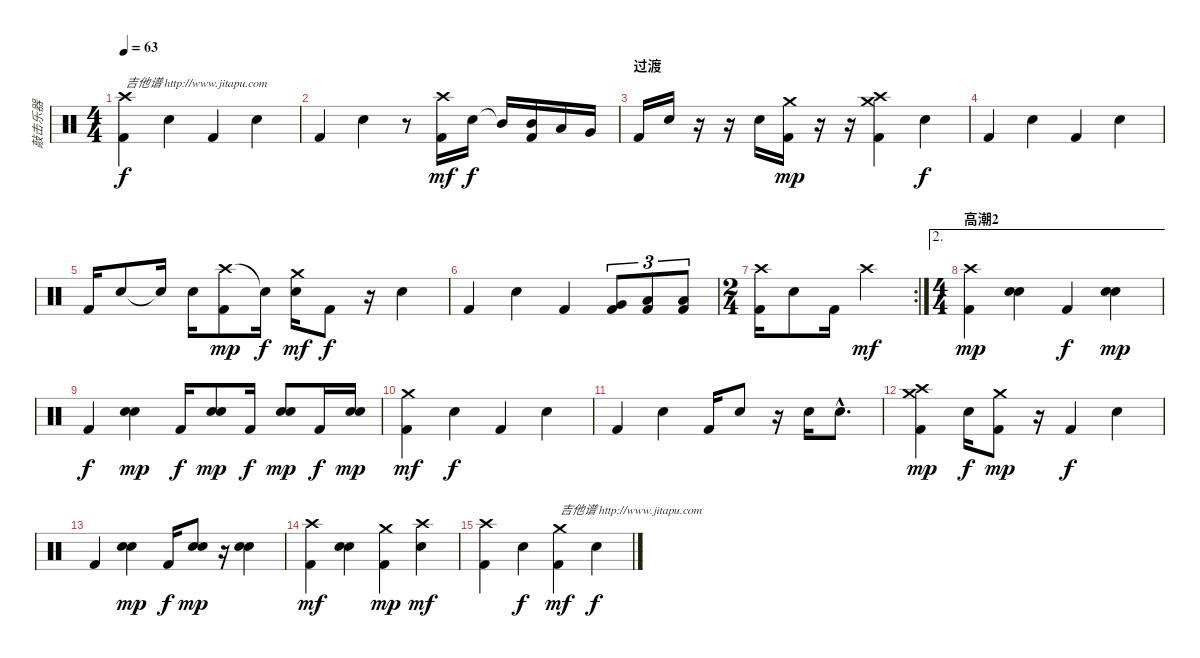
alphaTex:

\track ("敲击乐器" "敲击乐器") {instrument percussion}
\staff {score}
\articulation defaults
\ts (4 4)
\tempo 63
\clef neutral
\ks c
("Crash high (hit)" "Kick (hit) 2").4{txt "吉他谱 http://www.jitapu.com" dy f} "Snare (hit) 2".4 "Kick (hit) 2".4 "Snare (hit) 2".4 |
"Kick (hit) 2".4 "Snare (hit) 2".4 r.8 ("Crash high (hit)" "Kick (hit) 2").16{dy mf} "Snare (hit) 2".16{dy f} "Mid Tom (hit)"{t}.16 ("Mid Tom (hit)" "Kick (hit) 2").16 "Low Tom (hit)".16 "Very Low Tom (hit)".16 |
\section ("" "过渡")
"Kick (hit) 2".16 "Snare (hit) 2".16 r.16 r.16 "Snare (hit) 2".16 ("Kick (hit) 2" "Crash medium (hit)").16{dy mp} r.16 r.16 ("Crash high (hit)" "Crash medium (hit)" "Kick (hit) 2").4 "Snare (hit) 2".4{dy f} |
"Kick (hit) 2".4 "Snare (hit) 2".4 "Kick (hit) 2".4 "Snare (hit) 2".4 |
"Kick (hit) 2".16 "Snare (hit) 2".8 "Snare (hit) 2"{t}.16 "Snare (hit) 2".16 ("Crash high (hit)" "Kick (hit) 2").8{dy mp} "Snare (hit)"{t}.16{dy f} ("Crash medium (hit)" "Snare (hit) 2").16{dy mf} "Kick (hit) 2".8{dy f} r.16 "Snare (hit) 2".4 |
"Kick (hit) 2".4 "Snare (hit) 2".4 "Kick (hit) 2".4 ("Very Low Tom (hit)" "Kick (hit) 2").8{tu (3 2)} ("Low Tom (hit)" "Kick (hit) 2").8{tu (3 2)} ("Low Tom (hit)" "Kick (hit) 2").8{tu (3 2)} |
\rc 2
\ts (2 4)
("Kick (hit) 2" "Crash high (hit)").16 "Snare (hit) 2".8 "Kick (hit) 2".16 "Crash high (hit)".4{dy mf} |
\ae 2
\ts (4 4)
\section ("" "高潮2")
("Kick (hit) 2" "Crash high (hit)").4{dy mp} ("Snare (hit) 2" "Electric Snare (hit)").4 "Kick (hit) 2".4{dy f} ("Snare (hit) 2" "Electric Snare (hit)").4{dy mp} |
"Kick (hit) 2".4{dy f} ("Electric Snare (hit)" "Snare (hit) 2").4{dy mp} "Kick (hit) 2".16{dy f} ("Electric Snare (hit)" "Snare (hit) 2").8{dy mp} "Kick (hit) 2".16{dy f} ("Electric Snare (hit)" "Snare (hit) 2").8{dy mp} "Kick (hit) 2".16{dy f} ("Electric Snare (hit)" "Snare (hit) 2").16{dy mp} |
("Crash medium (hit)" "Kick (hit) 2").4{dy mf} "Snare (hit) 2".4{dy f} "Kick (hit) 2".4 "Snare (hit) 2".4 |
"Kick (hit) 2".4 "Snare (hit) 2".4 "Kick (hit) 2".16 "Snare (hit) 2".8 r.16 "Snare (hit) 2".16 "Snare (hit) 2"{hac}.8{d} |
("Crash high (hit)" "Crash medium (hit)" "Kick (hit) 2").4{dy mp} "Snare (hit) 2".16{dy f} ("Crash medium (hit)" "Kick (hit) 2").8{dy mp} r.16 "Kick (hit) 2".4{dy f} "Snare (hit) 2".4 |
"Kick (hit) 2".4 ("Electric Snare (hit)" "Snare (hit) 2").4{dy mp} "Kick (hit) 2".16{dy f} ("Electric Snare (hit)" "Snare (hit) 2").8{dy mp} r.16 ("Electric Snare (hit)" "Snare (hit) 2").4 |
("Crash high (hit)" "Kick (hit) 2").4{dy mf} ("Electric Snare (hit)" "Snare (hit) 2").4 ("Crash medium (hit)" "Kick (hit) 2").4{dy mp} ("Crash high (hit)" "Snare (hit) 2").4{dy mf} |
("Crash high (hit)" "Kick (hit) 2").4 "Snare (hit) 2".4{dy f} ("Crash medium (hit)" "Kick (hit) 2").4{txt "吉他谱 http://www.jitapu.com" dy mf} "Snare (hit) 2".4{dy f}
